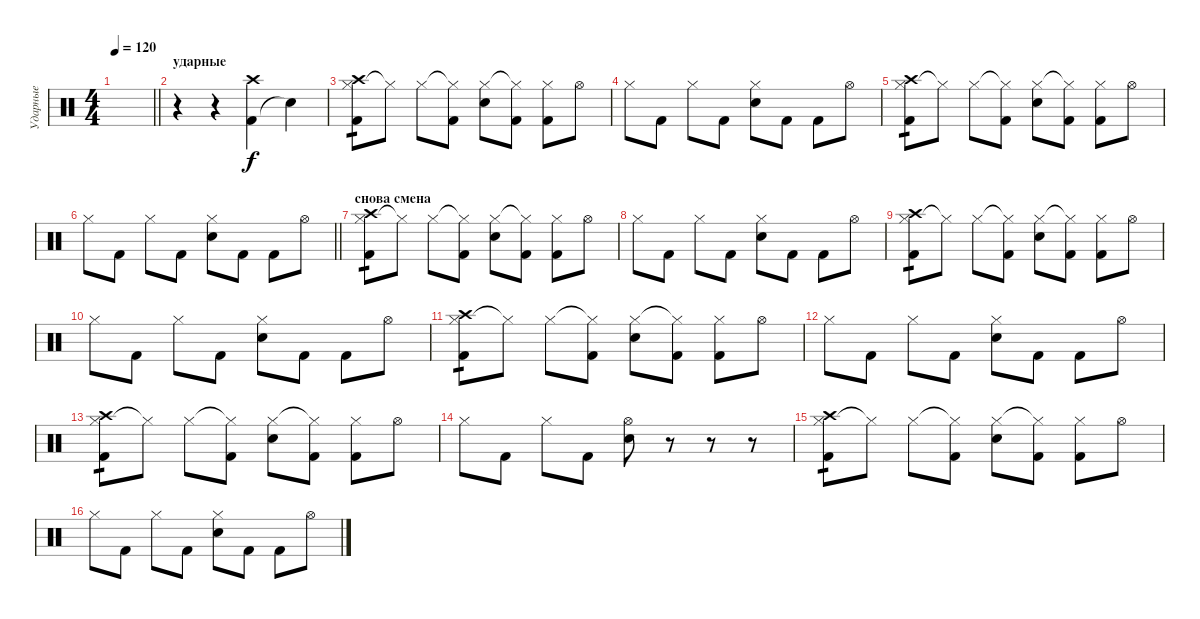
\track ("Ударные" "Ударные") {instrument percussion}
\staff {score}
\articulation defaults
\ts (4 4)
\tempo 120
\clef neutral
\barLineRight lightlight
\ks c
|
\section ("" "ударные")
r.4 r.4 ("Kick (hit) 2" "Crash high (hit)").4 "Snare (hit)"{t}.4 |
("Hi-Hat (closed)" "Kick (hit) 2" "Crash high (hit)").8{tp 1} "Hi-Hat (closed)"{t}.8 "Hi-Hat (closed)".8 ("Hi-Hat (closed)"{t} "Kick (hit) 2").8 ("Hi-Hat (closed)" "Electric Snare (hit)").8 ("Hi-Hat (closed)"{t} "Kick (hit) 2").8 ("Hi-Hat (closed)" "Kick (hit) 2").8 "Hi-Hat (open)".8 |
"Hi-Hat (closed)".8 "Kick (hit) 2".8 "Hi-Hat (closed)".8 "Kick (hit) 2".8 ("Electric Snare (hit)" "Hi-Hat (closed)").8 "Kick (hit) 2".8 "Kick (hit) 2".8 "Hi-Hat (open)".8 |
("Hi-Hat (closed)" "Kick (hit) 2" "Crash high (hit)").8{tp 1} "Hi-Hat (closed)"{t}.8 "Hi-Hat (closed)".8 ("Hi-Hat (closed)"{t} "Kick (hit) 2").8 ("Hi-Hat (closed)" "Electric Snare (hit)").8 ("Hi-Hat (closed)"{t} "Kick (hit) 2").8 ("Hi-Hat (closed)" "Kick (hit) 2").8 "Hi-Hat (open)".8 |
\barLineRight lightlight "Hi-Hat (closed)".8 "Kick (hit) 2".8 "Hi-Hat (closed)".8 "Kick (hit) 2".8
("Electric Snare (hit)" "Hi-Hat (closed)").8 "Kick (hit) 2".8 "Kick (hit) 2".8 "Hi-Hat (open)".8 |
\section ("" "снова смена")
("Hi-Hat (closed)" "Kick (hit) 2" "Crash high (hit)").8{tp 1} "Hi-Hat (closed)"{t}.8 "Hi-Hat (closed)".8 ("Hi-Hat (closed)"{t} "Kick (hit) 2").8 ("Hi-Hat (closed)" "Electric Snare (hit)").8 ("Hi-Hat (closed)"{t} "Kick (hit) 2").8 ("Hi-Hat (closed)" "Kick (hit) 2").8 "Hi-Hat (open)".8 |
"Hi-Hat (closed)".8 "Kick (hit) 2".8 "Hi-Hat (closed)".8 "Kick (hit) 2".8 ("Electric Snare (hit)" "Hi-Hat (closed)").8 "Kick (hit) 2".8 "Kick (hit) 2".8 "Hi-Hat (open)".8 |
("Hi-Hat (closed)" "Kick (hit) 2" "Crash high (hit)").8{tp 1} "Hi-Hat (closed)"{t}.8 "Hi-Hat (closed)".8 ("Hi-Hat (closed)"{t} "Kick (hit) 2").8 ("Hi-Hat (closed)" "Electric Snare (hit)").8 ("Hi-Hat (closed)"{t} "Kick (hit) 2").8 ("Hi-Hat (closed)" "Kick (hit) 2").8 "Hi-Hat (open)".8 |
"Hi-Hat (closed)".8 "Kick (hit) 2".8 "Hi-Hat (closed)".8 "Kick (hit) 2".8 ("Electric Snare (hit)" "Hi-Hat (closed)").8 "Kick (hit) 2".8 "Kick (hit) 2".8 "Hi-Hat (open)".8 |
("Hi-Hat (closed)" "Kick (hit) 2" "Crash high (hit)").8{tp 1} "Hi-Hat (closed)"{t}.8 "Hi-Hat (closed)".8 ("Hi-Hat (closed)"{t} "Kick (hit) 2").8 ("Hi-Hat (closed)" "Electric Snare (hit)").8 ("Hi-Hat (closed)"{t} "Kick (hit) 2").8 ("Hi-Hat (closed)" "Kick (hit) 2").8 "Hi-Hat (open)".8 |
"Hi-Hat (closed)".8 "Kick (hit) 2".8 "Hi-Hat (closed)".8 "Kick (hit) 2".8 ("Electric Snare (hit)" "Hi-Hat (closed)").8 "Kick (hit) 2".8 "Kick (hit) 2".8 "Hi-Hat (open)".8 |
("Hi-Hat (closed)" "Kick (hit) 2" "Crash high (hit)").8{tp 1} "Hi-Hat (closed)"{t}.8 "Hi-Hat (closed)".8 ("Hi-Hat (closed)"{t} "Kick (hit) 2").8 ("Hi-Hat (closed)" "Electric Snare (hit)").8 ("Hi-Hat (closed)"{t} "Kick (hit) 2").8 ("Hi-Hat (closed)" "Kick (hit) 2").8 "Hi-Hat (open)".8 |
"Hi-Hat (closed)".8 "Kick (hit) 2".8 "Hi-Hat (closed)".8 "Kick (hit) 2".8 ("Electric Snare (hit)" "Hi-Hat (open)").8 r.8 r.8 r.8 |
("Hi-Hat (closed)" "Kick (hit) 2" "Crash high (hit)").8{tp 1} "Hi-Hat (closed)"{t}.8 "Hi-Hat (closed)".8 ("Hi-Hat (closed)"{t} "Kick (hit) 2").8 ("Hi-Hat (closed)" "Electric Snare (hit)").8 ("Hi-Hat (closed)"{t} "Kick (hit) 2").8 ("Hi-Hat (closed)" "Kick (hit) 2").8 "Hi-Hat (open)".8 |
"Hi-Hat (closed)".8 "Kick (hit) 2".8 "Hi-Hat (closed)".8 "Kick (hit) 2".8 ("Electric Snare (hit)" "Hi-Hat (closed)").8 "Kick (hit) 2".8 "Kick (hit) 2".8 "Hi-Hat (open)".8
